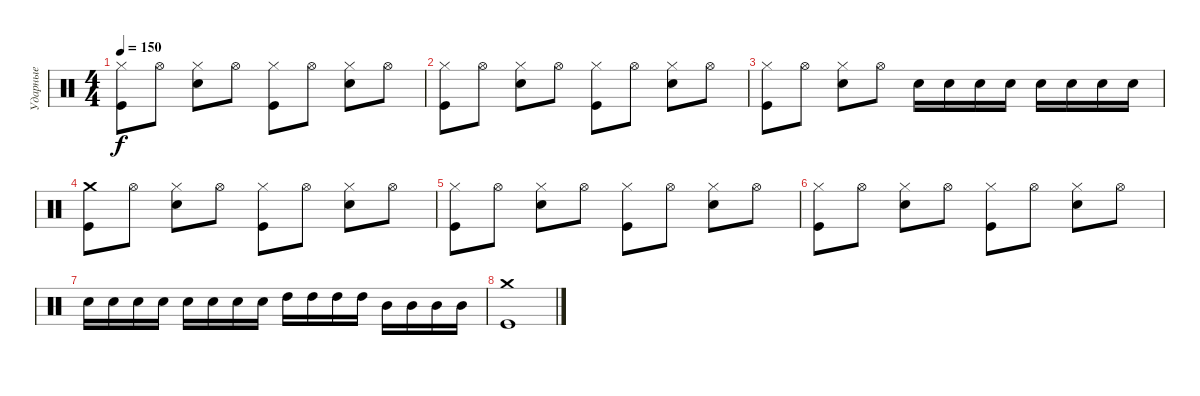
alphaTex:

\track ("Ударные" "Ударные") {instrument percussion}
\staff {score}
\articulation defaults
\ts (4 4)
\tempo 150
\clef neutral
\ks c
("Hi-Hat (closed)" "Kick (hit)").8{dy f} "Hi-Hat (open)".8 ("Hi-Hat (closed)" "Electric Snare (hit)").8 "Hi-Hat (open)".8 ("Hi-Hat (closed)" "Kick (hit)").8 "Hi-Hat (open)".8 ("Hi-Hat (closed)" "Electric Snare (hit)").8 "Hi-Hat (open)".8 |
("Hi-Hat (closed)" "Kick (hit)").8 "Hi-Hat (open)".8 ("Hi-Hat (closed)" "Electric Snare (hit)").8 "Hi-Hat (open)".8 ("Hi-Hat (closed)" "Kick (hit)").8 "Hi-Hat (open)".8 ("Hi-Hat (closed)" "Electric Snare (hit)").8 "Hi-Hat (open)".8 |
("Hi-Hat (closed)" "Kick (hit)").8 "Hi-Hat (open)".8 ("Hi-Hat (closed)" "Electric Snare (hit)").8 "Hi-Hat (open)".8 "Electric Snare (hit)".16 "Electric Snare (hit)".16 "Electric Snare (hit)".16 "Electric Snare (hit)".16 "Electric Snare (hit)".16 "Electric Snare (hit)".16 "Electric Snare (hit)".16 "Electric Snare (hit)".16 |
("Crash medium (hit)" "Kick (hit)").8 "Hi-Hat (open)".8 ("Hi-Hat (closed)" "Electric Snare (hit)").8 "Hi-Hat (open)".8 ("Hi-Hat (closed)" "Kick (hit)").8 "Hi-Hat (open)".8 ("Hi-Hat (closed)" "Electric Snare (hit)").8 "Hi-Hat (open)".8 |
("Hi-Hat (closed)" "Kick (hit)").8 "Hi-Hat (open)".8 ("Hi-Hat (closed)" "Electric Snare (hit)").8 "Hi-Hat (open)".8 ("Hi-Hat (closed)" "Kick (hit)").8 "Hi-Hat (open)".8 ("Hi-Hat (closed)" "Electric Snare (hit)").8 "Hi-Hat (open)".8 |
("Hi-Hat (closed)" "Kick (hit)").8 "Hi-Hat (open)".8 ("Hi-Hat (closed)" "Electric Snare (hit)").8 "Hi-Hat (open)".8 ("Hi-Hat (closed)" "Kick (hit)").8 "Hi-Hat (open)".8 ("Hi-Hat (closed)" "Electric Snare (hit)").8 "Hi-Hat (open)".8 |
"Electric Snare (hit)".16 "Electric Snare (hit)".16 "Electric Snare (hit)".16 "Electric Snare (hit)".16 "Electric Snare (hit)".16 "Electric Snare (hit)".16 "Electric Snare (hit)".16 "Electric Snare (hit)".16 "High Tom (hit)".16 "High Tom (hit)".16 "High Tom (hit)".16 "High Tom (hit)".16 "Mid Tom (hit)".16 "Mid Tom (hit)".16 "Mid Tom (hit)".16 "Mid Tom (hit)".16 |
("Crash medium (hit)" "Kick (hit)").1
